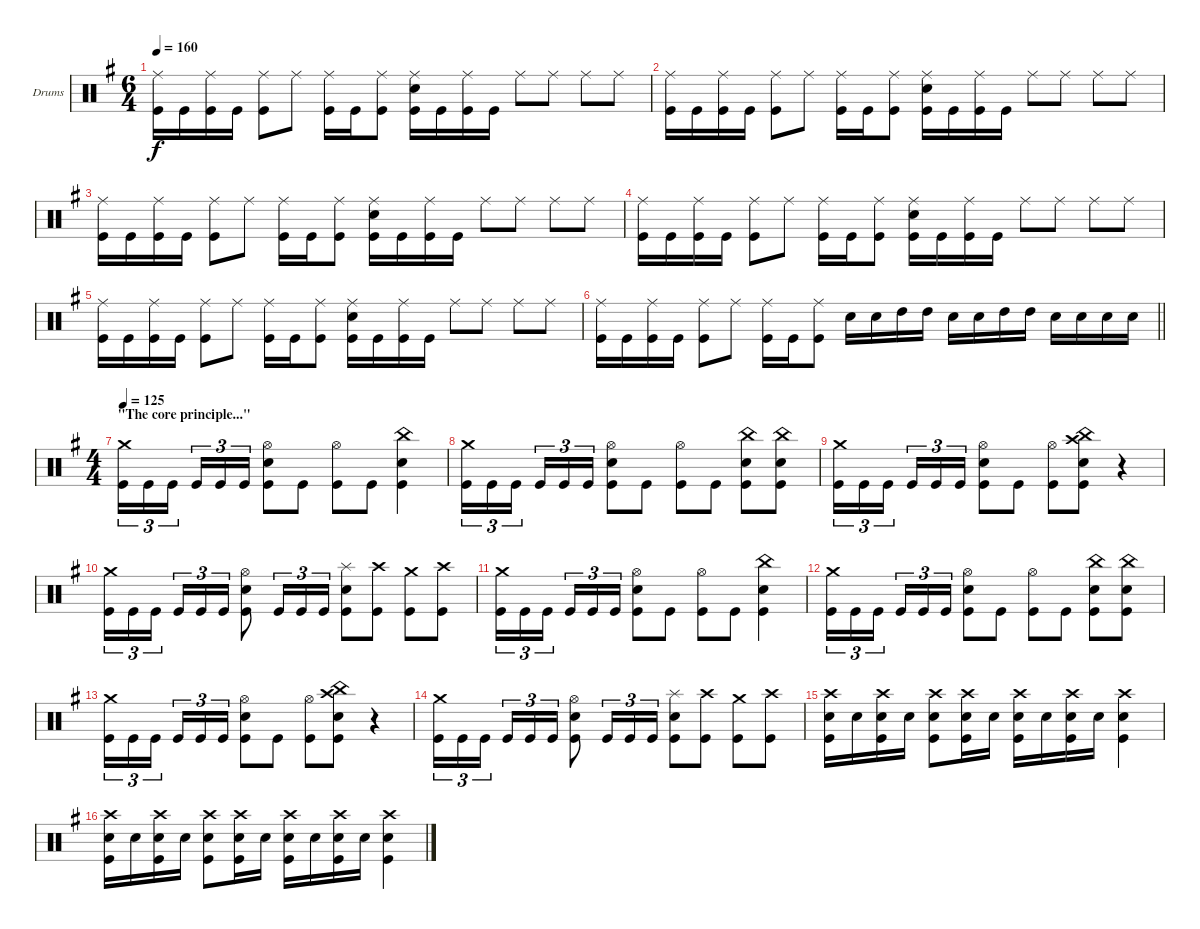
\bracketExtendMode groupsimilarinstruments
\firstSystemTrackNameOrientation horizontal
\otherSystemsTrackNameOrientation horizontal
\track ("Drumkit" "Drums") {instrument percussion}
\staff {score}
\articulation defaults
\ts (6 4)
\tempo 160
\clef neutral
\scale
0.5
\ks g
("Ride (middle)" "Kick (hit)").16{dy f} "Kick (hit)".16 ("Ride (middle)" "Kick (hit)").16 "Kick (hit)".16 ("Ride (middle)" "Kick (hit)").8 "Ride (middle)".8 ("Ride (middle)" "Kick (hit)").16 "Kick (hit)".16 ("Ride (middle)" "Kick (hit)").8 ("Ride (middle)" "Snare (hit) 2" "Kick (hit)").16 "Kick (hit)".16 ("Ride (middle)" "Kick (hit)").16 "Kick (hit)".16 "Ride (middle)".8 "Ride (middle)".8 "Ride (middle)".8 "Ride (middle)".8 |
\scale
0.5 ("Ride (middle)" "Kick (hit)").16 "Kick (hit)".16 ("Ride (middle)" "Kick (hit)").16 "Kick (hit)".16 ("Ride (middle)" "Kick (hit)").8 "Ride (middle)".8 ("Ride (middle)" "Kick (hit)").16 "Kick (hit)".16 ("Ride (middle)" "Kick (hit)").8 ("Ride (middle)" "Snare (hit) 2" "Kick (hit)").16 "Kick (hit)".16 ("Ride (middle)" "Kick (hit)").16 "Kick (hit)".16 "Ride (middle)".8 "Ride (middle)".8 "Ride (middle)".8 "Ride (middle)".8 |
\scale
0.5 ("Ride (middle)" "Kick (hit)").16 "Kick (hit)".16 ("Ride (middle)" "Kick (hit)").16 "Kick (hit)".16 ("Ride (middle)" "Kick (hit)").8 "Ride (middle)".8 ("Ride (middle)" "Kick (hit)").16 "Kick (hit)".16 ("Ride (middle)" "Kick (hit)").8 ("Ride (middle)" "Snare (hit) 2" "Kick (hit)").16 "Kick (hit)".16 ("Ride (middle)" "Kick (hit)").16 "Kick (hit)".16 "Ride (middle)".8 "Ride (middle)".8 "Ride (middle)".8 "Ride (middle)".8 |
\scale
0.5 ("Ride (middle)" "Kick (hit)").16 "Kick (hit)".16 ("Ride (middle)" "Kick (hit)").16 "Kick (hit)".16 ("Ride (middle)" "Kick (hit)").8 "Ride (middle)".8 ("Ride (middle)" "Kick (hit)").16 "Kick (hit)".16 ("Ride (middle)" "Kick (hit)").8 ("Ride (middle)" "Snare (hit) 2" "Kick (hit)").16 "Kick (hit)".16 ("Ride (middle)" "Kick (hit)").16 "Kick (hit)".16 "Ride (middle)".8 "Ride (middle)".8 "Ride (middle)".8 "Ride (middle)".8 |
\scale
0.5 ("Ride (middle)" "Kick (hit)").16 "Kick (hit)".16 ("Ride (middle)" "Kick (hit)").16 "Kick (hit)".16 ("Ride (middle)" "Kick (hit)").8 "Ride (middle)".8 ("Ride (middle)" "Kick (hit)").16 "Kick (hit)".16 ("Ride (middle)" "Kick (hit)").8 ("Ride (middle)" "Snare (hit) 2" "Kick (hit)").16 "Kick (hit)".16 ("Ride (middle)" "Kick (hit)").16 "Kick (hit)".16 "Ride (middle)".8 "Ride (middle)".8 "Ride (middle)".8 "Ride (middle)".8 |
\scale
0.529412
\barLineRight lightlight
("Ride (middle)" "Kick (hit)").16 "Kick (hit)".16 ("Ride (middle)" "Kick (hit)").16 "Kick (hit)".16 ("Ride (middle)" "Kick (hit)").8 "Ride (middle)".8 ("Ride (middle)" "Kick (hit)").16 "Kick (hit)".16 ("Ride (middle)" "Kick (hit)").8 "Snare (hit) 2".16 "Snare (hit) 2".16 "High Tom (hit)".16 "High Tom (hit)".16 "Snare (hit) 2".16 "Snare (hit) 2".16 "High Tom (hit)".16 "High Tom (hit)".16 "Snare (hit) 2".16 "Snare (hit) 2".16 "Snare (hit) 2".16 "Snare (hit) 2".16 |
\ts (4 4)
\section ("" "\"The core principle...\"")
\tempo 125
\scale
0.470588 ("Crash medium (hit)" "Kick (hit)").16{tu (3 2)} "Kick (hit)".16{tu (3 2)} "Kick (hit)".16{tu (3 2)} "Kick (hit)".16{tu (3 2)} "Kick (hit)".16{tu (3 2)} "Kick (hit)".16{tu (3 2)} ("Hi-Hat (open)" "Snare (hit) 2" "Kick (hit)").8 "Kick (hit)".8 ("Hi-Hat (open)" "Kick (hit)").8 "Kick (hit)".8 ("China (hit)" "Snare (hit) 2" "Kick (hit)").4 |
\scale
0.514286 ("Crash medium (hit)" "Kick (hit)").16{tu (3 2)} "Kick (hit)".16{tu (3 2)} "Kick (hit)".16{tu (3 2)} "Kick (hit)".16{tu (3 2)} "Kick (hit)".16{tu (3 2)} "Kick (hit)".16{tu (3 2)} ("Hi-Hat (open)" "Snare (hit) 2" "Kick (hit)").8 "Kick (hit)".8 ("Hi-Hat (open)" "Kick (hit)").8 "Kick (hit)".8 ("China (hit)" "Snare (hit) 2" "Kick (hit)").8 ("China (hit)" "Snare (hit) 2" "Kick (hit)").8 |
\scale
0.485714 ("Crash medium (hit)" "Kick (hit)").16{tu (3 2)} "Kick (hit)".16{tu (3 2)} "Kick (hit)".16{tu (3 2)} "Kick (hit)".16{tu (3 2)} "Kick (hit)".16{tu (3 2)} "Kick (hit)".16{tu (3 2)} ("Hi-Hat (open)" "Snare (hit) 2" "Kick (hit)").8 "Kick (hit)".8 ("Hi-Hat (open)" "Kick (hit)").8 ("China (hit)" "Crash high (hit)" "Snare (hit) 2" "Kick (hit)").8 r.4 |
\scale
0.531496 ("Crash medium (hit)" "Kick (hit)").16{tu (3 2)} "Kick (hit)".16{tu (3 2)} "Kick (hit)".16{tu (3 2)} "Kick (hit)".16{tu (3 2)} "Kick (hit)".16{tu (3 2)} "Kick (hit)".16{tu (3 2)} ("Hi-Hat (open)" "Snare (hit) 2" "Kick (hit)").8 "Kick (hit)".16{tu (3 2)} "Kick (hit)".16{tu (3 2)} "Kick (hit)".16{tu (3 2)} ("Splash (hit)" "Snare (hit) 2" "Kick (hit)").8 ("Crash high (hit)" "Kick (hit)").8 ("Crash medium (hit)" "Kick (hit)").8 ("Crash high (hit)" "Kick (hit)").8 |
\scale
0.468504 ("Crash medium (hit)" "Kick (hit)").16{tu (3 2)} "Kick (hit)".16{tu (3 2)} "Kick (hit)".16{tu (3 2)} "Kick (hit)".16{tu (3 2)} "Kick (hit)".16{tu (3 2)} "Kick (hit)".16{tu (3 2)} ("Hi-Hat (open)" "Snare (hit) 2" "Kick (hit)").8 "Kick (hit)".8 ("Hi-Hat (open)" "Kick (hit)").8 "Kick (hit)".8 ("China (hit)" "Snare (hit) 2" "Kick (hit)").4 |
\scale
0.514286 ("Crash medium (hit)" "Kick (hit)").16{tu (3 2)} "Kick (hit)".16{tu (3 2)} "Kick (hit)".16{tu (3 2)} "Kick (hit)".16{tu (3 2)} "Kick (hit)".16{tu (3 2)} "Kick (hit)".16{tu (3 2)} ("Hi-Hat (open)" "Snare (hit) 2" "Kick (hit)").8 "Kick (hit)".8 ("Hi-Hat (open)" "Kick (hit)").8 "Kick (hit)".8 ("China (hit)" "Snare (hit) 2" "Kick (hit)").8 ("China (hit)" "Snare (hit) 2" "Kick (hit)").8 |
\scale
0.485714 ("Crash medium (hit)" "Kick (hit)").16{tu (3 2)} "Kick (hit)".16{tu (3 2)} "Kick (hit)".16{tu (3 2)} "Kick (hit)".16{tu (3 2)} "Kick (hit)".16{tu (3 2)} "Kick (hit)".16{tu (3 2)} ("Hi-Hat (open)" "Snare (hit) 2" "Kick (hit)").8 "Kick (hit)".8 ("Hi-Hat (open)" "Kick (hit)").8 ("China (hit)" "Crash high (hit)" "Snare (hit) 2" "Kick (hit)").8 r.4 |
\scale
0.561331 ("Crash medium (hit)" "Kick (hit)").16{tu (3 2)} "Kick (hit)".16{tu (3 2)} "Kick (hit)".16{tu (3 2)} "Kick (hit)".16{tu (3 2)} "Kick (hit)".16{tu (3 2)} "Kick (hit)".16{tu (3 2)} ("Hi-Hat (open)" "Snare (hit) 2" "Kick (hit)").8 "Kick (hit)".16{tu (3 2)} "Kick (hit)".16{tu (3 2)} "Kick (hit)".16{tu (3 2)} ("Splash (hit)" "Snare (hit) 2" "Kick (hit)").8 ("Crash high (hit)" "Kick (hit)").8 ("Crash medium (hit)" "Kick (hit)").8 ("Crash high (hit)" "Kick (hit)").8 |
\scale
0.438669 ("Crash high (hit)" "Snare (hit) 2" "Kick (hit)").16 "Snare (hit) 2".16 ("Crash high (hit)" "Snare (hit) 2" "Kick (hit)").16 "Snare (hit) 2".16 ("Crash high (hit)" "Snare (hit) 2" "Kick (hit)").8 ("Crash high (hit)" "Snare (hit) 2" "Kick (hit)").16 "Snare (hit) 2".16 ("Crash high (hit)" "Snare (hit) 2" "Kick (hit)").16 "Snare (hit) 2".16 ("Crash high (hit)" "Snare (hit) 2" "Kick (hit)").16 "Snare (hit) 2".16 ("Crash high (hit)" "Snare (hit) 2" "Kick (hit)").4 |
\scale
0.5 ("Crash high (hit)" "Snare (hit) 2" "Kick (hit)").16 "Snare (hit) 2".16 ("Crash high (hit)" "Snare (hit) 2" "Kick (hit)").16 "Snare (hit) 2".16 ("Crash high (hit)" "Snare (hit) 2" "Kick (hit)").8 ("Crash high (hit)" "Snare (hit) 2" "Kick (hit)").16 "Snare (hit) 2".16 ("Crash high (hit)" "Snare (hit) 2" "Kick (hit)").16 "Snare (hit) 2".16 ("Crash high (hit)" "Snare (hit) 2" "Kick (hit)").16 "Snare (hit) 2".16 ("Crash high (hit)" "Snare (hit) 2" "Kick (hit)").4
